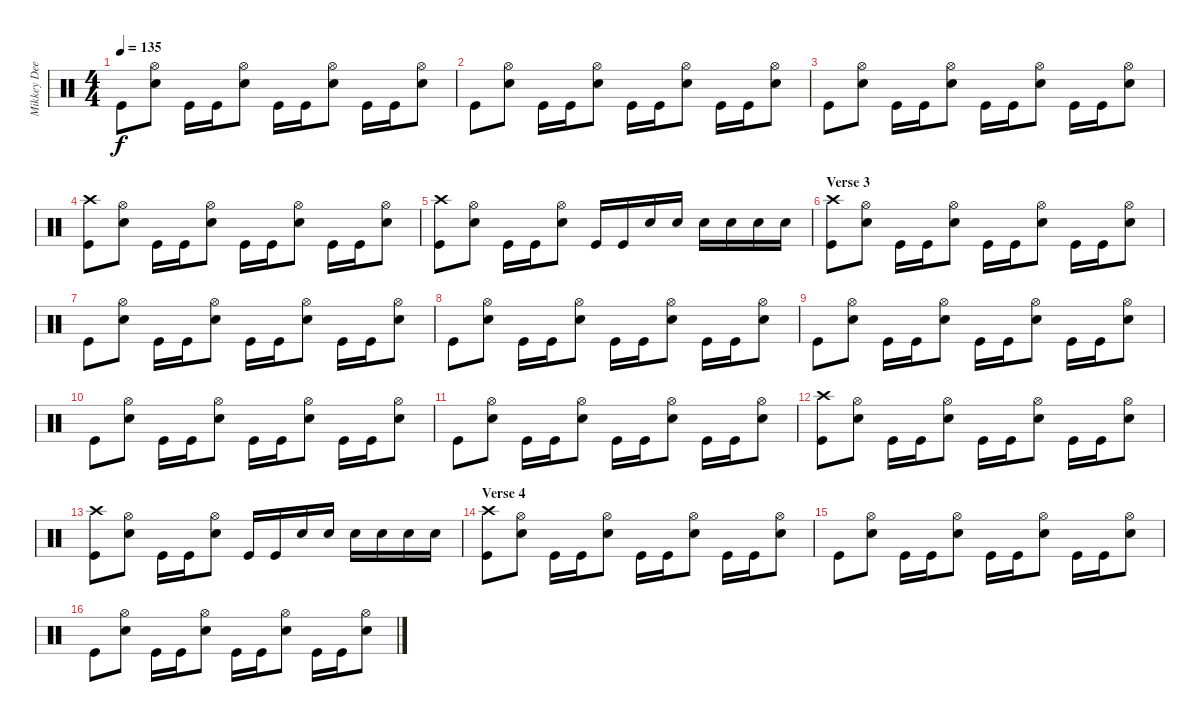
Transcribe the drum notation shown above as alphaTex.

\track ("Mikkey Dee - Drums" "Mikkey Dee") {instrument percussion}
\staff {score}
\articulation defaults
\ts (4 4)
\tempo 135
\clef neutral
\ks c "Kick (hit)".8{dy f}
("Snare (hit) 2" "Hi-Hat (open)").8 "Kick (hit)".16 "Kick (hit)".16 ("Snare (hit) 2" "Hi-Hat (open)").8 "Kick (hit)".16 "Kick (hit)".16 ("Snare (hit) 2" "Hi-Hat (open)").8 "Kick (hit)".16 "Kick (hit)".16 ("Snare (hit) 2" "Hi-Hat (open)").8 |
"Kick (hit)".8 ("Snare (hit) 2" "Hi-Hat (open)").8 "Kick (hit)".16 "Kick (hit)".16 ("Snare (hit) 2" "Hi-Hat (open)").8 "Kick (hit)".16 "Kick (hit)".16 ("Snare (hit) 2" "Hi-Hat (open)").8 "Kick (hit)".16 "Kick (hit)".16 ("Snare (hit) 2" "Hi-Hat (open)").8 |
"Kick (hit)".8 ("Snare (hit) 2" "Hi-Hat (open)").8 "Kick (hit)".16 "Kick (hit)".16 ("Snare (hit) 2" "Hi-Hat (open)").8 "Kick (hit)".16 "Kick (hit)".16 ("Snare (hit) 2" "Hi-Hat (open)").8 "Kick (hit)".16 "Kick (hit)".16 ("Snare (hit) 2" "Hi-Hat (open)").8 |
("Crash high (hit)" "Kick (hit)").8 ("Snare (hit) 2" "Hi-Hat (open)").8 "Kick (hit)".16 "Kick (hit)".16 ("Snare (hit) 2" "Hi-Hat (open)").8 "Kick (hit)".16 "Kick (hit)".16 ("Snare (hit) 2" "Hi-Hat (open)").8 "Kick (hit)".16 "Kick (hit)".16 ("Snare (hit) 2" "Hi-Hat (open)").8 |
("Crash high (hit)" "Kick (hit)").8 ("Snare (hit) 2" "Hi-Hat (open)").8 "Kick (hit)".16 "Kick (hit)".16 ("Snare (hit) 2" "Hi-Hat (open)").8 "Kick (hit)".16 "Kick (hit)".16 "Snare (hit) 2".16 "Snare (hit) 2".16 "Snare (hit) 2".16 "Snare (hit) 2".16 "Snare (hit) 2".16 "Snare (hit) 2".16 |
\section ("" "Verse 3")
("Crash high (hit)" "Kick (hit)").8 ("Snare (hit) 2" "Hi-Hat (open)").8 "Kick (hit)".16 "Kick (hit)".16 ("Snare (hit) 2" "Hi-Hat (open)").8 "Kick (hit)".16 "Kick (hit)".16 ("Snare (hit) 2" "Hi-Hat (open)").8 "Kick (hit)".16 "Kick (hit)".16 ("Snare (hit) 2" "Hi-Hat (open)").8 |
"Kick (hit)".8 ("Snare (hit) 2" "Hi-Hat (open)").8 "Kick (hit)".16 "Kick (hit)".16 ("Snare (hit) 2" "Hi-Hat (open)").8 "Kick (hit)".16 "Kick (hit)".16 ("Snare (hit) 2" "Hi-Hat (open)").8 "Kick (hit)".16 "Kick (hit)".16 ("Snare (hit) 2" "Hi-Hat (open)").8 |
"Kick (hit)".8 ("Snare (hit) 2" "Hi-Hat (open)").8 "Kick (hit)".16 "Kick (hit)".16 ("Snare (hit) 2" "Hi-Hat (open)").8 "Kick (hit)".16 "Kick (hit)".16 ("Snare (hit) 2" "Hi-Hat (open)").8 "Kick (hit)".16 "Kick (hit)".16 ("Snare (hit) 2" "Hi-Hat (open)").8 |
"Kick (hit)".8 ("Snare (hit) 2" "Hi-Hat (open)").8 "Kick (hit)".16 "Kick (hit)".16 ("Snare (hit) 2" "Hi-Hat (open)").8 "Kick (hit)".16 "Kick (hit)".16 ("Snare (hit) 2" "Hi-Hat (open)").8 "Kick (hit)".16 "Kick (hit)".16 ("Snare (hit) 2" "Hi-Hat (open)").8 |
"Kick (hit)".8 ("Snare (hit) 2" "Hi-Hat (open)").8 "Kick (hit)".16 "Kick (hit)".16 ("Snare (hit) 2" "Hi-Hat (open)").8 "Kick (hit)".16 "Kick (hit)".16 ("Snare (hit) 2" "Hi-Hat (open)").8 "Kick (hit)".16 "Kick (hit)".16 ("Snare (hit) 2" "Hi-Hat (open)").8 |
"Kick (hit)".8 ("Snare (hit) 2" "Hi-Hat (open)").8 "Kick (hit)".16 "Kick (hit)".16 ("Snare (hit) 2" "Hi-Hat (open)").8 "Kick (hit)".16 "Kick (hit)".16 ("Snare (hit) 2" "Hi-Hat (open)").8 "Kick (hit)".16 "Kick (hit)".16 ("Snare (hit) 2" "Hi-Hat (open)").8 |
("Crash high (hit)" "Kick (hit)").8 ("Snare (hit) 2" "Hi-Hat (open)").8 "Kick (hit)".16 "Kick (hit)".16 ("Snare (hit) 2" "Hi-Hat (open)").8 "Kick (hit)".16 "Kick (hit)".16 ("Snare (hit) 2" "Hi-Hat (open)").8 "Kick (hit)".16 "Kick (hit)".16 ("Snare (hit) 2" "Hi-Hat (open)").8 |
("Crash high (hit)" "Kick (hit)").8 ("Snare (hit) 2" "Hi-Hat (open)").8 "Kick (hit)".16 "Kick (hit)".16 ("Snare (hit) 2" "Hi-Hat (open)").8 "Kick (hit)".16 "Kick (hit)".16 "Snare (hit) 2".16 "Snare (hit) 2".16 "Snare (hit) 2".16 "Snare (hit) 2".16 "Snare (hit) 2".16 "Snare (hit) 2".16 |
\section ("" "Verse 4")
("Crash high (hit)" "Kick (hit)").8 ("Snare (hit) 2" "Hi-Hat (open)").8 "Kick (hit)".16 "Kick (hit)".16 ("Snare (hit) 2" "Hi-Hat (open)").8 "Kick (hit)".16 "Kick (hit)".16 ("Snare (hit) 2" "Hi-Hat (open)").8 "Kick (hit)".16 "Kick (hit)".16 ("Snare (hit) 2" "Hi-Hat (open)").8 |
"Kick (hit)".8 ("Snare (hit) 2" "Hi-Hat (open)").8 "Kick (hit)".16 "Kick (hit)".16 ("Snare (hit) 2" "Hi-Hat (open)").8 "Kick (hit)".16 "Kick (hit)".16 ("Snare (hit) 2" "Hi-Hat (open)").8 "Kick (hit)".16 "Kick (hit)".16 ("Snare (hit) 2" "Hi-Hat (open)").8 |
"Kick (hit)".8 ("Snare (hit) 2" "Hi-Hat (open)").8 "Kick (hit)".16 "Kick (hit)".16 ("Snare (hit) 2" "Hi-Hat (open)").8 "Kick (hit)".16 "Kick (hit)".16 ("Snare (hit) 2" "Hi-Hat (open)").8 "Kick (hit)".16 "Kick (hit)".16 ("Snare (hit) 2" "Hi-Hat (open)").8
